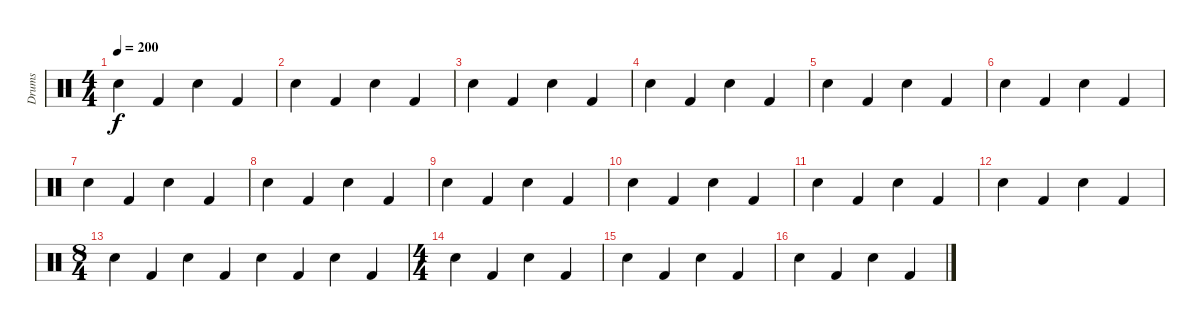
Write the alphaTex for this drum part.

\track ("Drums" "Drums") {instrument percussion}
\staff {score}
\articulation defaults
\ts (4 4)
\tempo 200
\clef neutral
\ks c "Snare (hit) 2".4{dy f} "Kick (hit) 2".4 "Snare (hit) 2".4 "Kick (hit) 2".4
|
"Snare (hit) 2".4 "Kick (hit) 2".4 "Snare (hit) 2".4 "Kick (hit) 2".4 |
"Snare (hit) 2".4 "Kick (hit) 2".4 "Snare (hit) 2".4 "Kick (hit) 2".4 |
"Snare (hit) 2".4 "Kick (hit) 2".4 "Snare (hit) 2".4 "Kick (hit) 2".4 |
"Snare (hit) 2".4 "Kick (hit) 2".4 "Snare (hit) 2".4 "Kick (hit) 2".4 |
"Snare (hit) 2".4 "Kick (hit) 2".4 "Snare (hit) 2".4 "Kick (hit) 2".4 |
"Snare (hit) 2".4 "Kick (hit) 2".4 "Snare (hit) 2".4 "Kick (hit) 2".4 |
"Snare (hit) 2".4 "Kick (hit) 2".4 "Snare (hit) 2".4 "Kick (hit) 2".4 |
"Snare (hit) 2".4 "Kick (hit) 2".4 "Snare (hit) 2".4 "Kick (hit) 2".4 |
"Snare (hit) 2".4 "Kick (hit) 2".4 "Snare (hit) 2".4 "Kick (hit) 2".4 |
"Snare (hit) 2".4 "Kick (hit) 2".4 "Snare (hit) 2".4 "Kick (hit) 2".4 |
"Snare (hit) 2".4 "Kick (hit) 2".4 "Snare (hit) 2".4 "Kick (hit) 2".4 |
\ts (8 4)
"Snare (hit) 2".4 "Kick (hit) 2".4 "Snare (hit) 2".4 "Kick (hit) 2".4 "Snare (hit) 2".4 "Kick (hit) 2".4 "Snare (hit) 2".4 "Kick (hit) 2".4 |
\ts (4 4)
"Snare (hit) 2".4 "Kick (hit) 2".4 "Snare (hit) 2".4 "Kick (hit) 2".4 |
"Snare (hit) 2".4 "Kick (hit) 2".4 "Snare (hit) 2".4 "Kick (hit) 2".4 |
"Snare (hit) 2".4 "Kick (hit) 2".4 "Snare (hit) 2".4 "Kick (hit) 2".4
